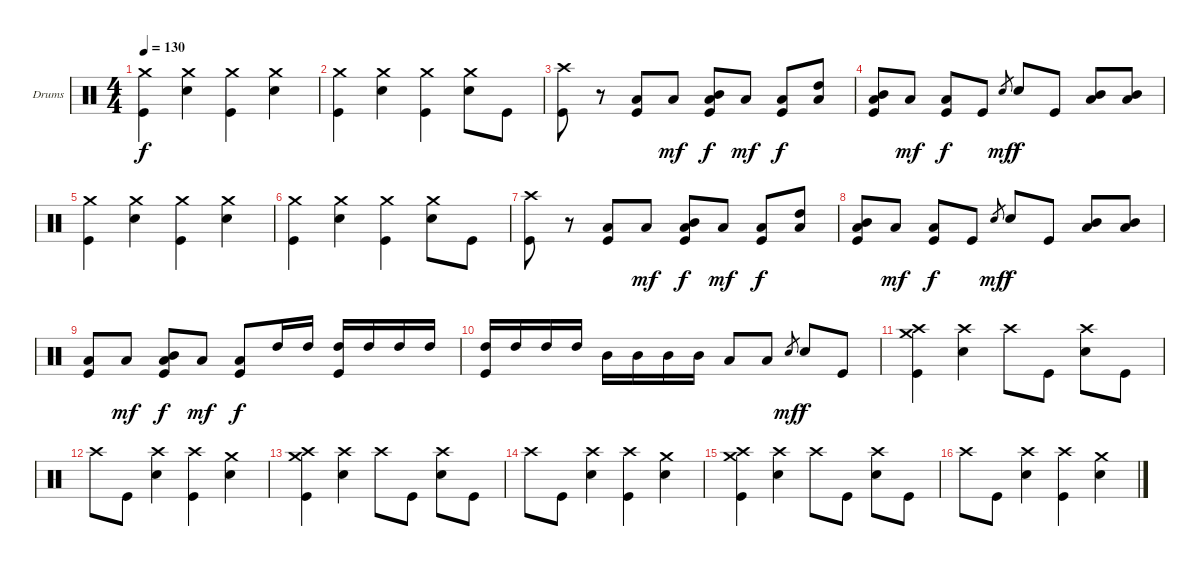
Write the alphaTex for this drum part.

\bracketExtendMode groupsimilarinstruments
\firstSystemTrackNameOrientation horizontal
\otherSystemsTrackNameOrientation horizontal
\track ("Drumkit" "Drums") {instrument percussion}
\staff {score}
\articulation defaults
\ts (4 4)
\tempo 130
\clef neutral
\ks c
("Crash medium (hit)" "Kick (hit)").4{dy f} ("Crash medium (hit)" "Snare (hit) 2").4 ("Crash medium (hit)" "Kick (hit)").4 ("Crash medium (hit)" "Snare (hit) 2").4 |
("Crash medium (hit)" "Kick (hit)").4 ("Crash medium (hit)" "Snare (hit) 2").4 ("Crash medium (hit)" "Kick (hit)").4 ("Crash medium (hit)" "Snare (hit) 2").8 "Kick (hit)".8 |
("Crash high (hit)" "Kick (hit)").8 r.8 ("Low Tom (hit)" "Kick (hit)").8 "Low Tom (hit)".8{dy mf} ("Mid Tom (hit)" "Low Tom (hit)" "Kick (hit)").8{dy f} "Low Tom (hit)".8{dy mf} ("Low Tom (hit)" "Kick (hit)").8{dy f} ("High Tom (hit)" "Low Tom (hit)").8 |
("Mid Tom (hit)" "Low Tom (hit)" "Kick (hit)").8 "Low Tom (hit)".8{dy mf} ("Low Tom (hit)" "Kick (hit)").8{dy f} "Kick (hit)".8 "Snare (hit) 2".8{gr dy mf} "Snare (hit) 2".8{dy f} "Kick (hit)".8 ("Mid Tom (hit)" "Low Tom (hit)").8 ("Mid Tom (hit)" "Low Tom (hit)").8 |
("Crash medium (hit)" "Kick (hit)").4 ("Crash medium (hit)" "Snare (hit) 2").4 ("Crash medium (hit)" "Kick (hit)").4 ("Crash medium (hit)" "Snare (hit) 2").4 |
("Crash medium (hit)" "Kick (hit)").4 ("Crash medium (hit)" "Snare (hit) 2").4 ("Crash medium (hit)" "Kick (hit)").4 ("Crash medium (hit)" "Snare (hit) 2").8 "Kick (hit)".8 |
("Crash high (hit)" "Kick (hit)").8 r.8 ("Low Tom (hit)" "Kick (hit)").8 "Low Tom (hit)".8{dy mf} ("Mid Tom (hit)" "Low Tom (hit)" "Kick (hit)").8{dy f} "Low Tom (hit)".8{dy mf} ("Low Tom (hit)" "Kick (hit)").8{dy f} ("High Tom (hit)" "Low Tom (hit)").8 |
("Mid Tom (hit)" "Low Tom (hit)" "Kick (hit)").8 "Low Tom (hit)".8{dy mf} ("Low Tom (hit)" "Kick (hit)").8{dy f} "Kick (hit)".8 "Snare (hit) 2".8{gr dy mf} "Snare (hit) 2".8{dy f} "Kick (hit)".8 ("Mid Tom (hit)" "Low Tom (hit)").8 ("Mid Tom (hit)" "Low Tom (hit)").8 |
("Low Tom (hit)" "Kick (hit)").8 "Low Tom (hit)".8{dy mf} ("Mid Tom (hit)" "Low Tom (hit)" "Kick (hit)").8{dy f} "Low Tom (hit)".8{dy mf} ("Low Tom (hit)" "Kick (hit)").8{dy f} "High Tom (hit)".16 "High Tom (hit)".16 ("High Tom (hit)" "Kick (hit)").16 "High Tom (hit)".16 "High Tom (hit)".16 "High Tom (hit)".16 |
("High Tom (hit)" "Kick (hit)").16 "High Tom (hit)".16 "High Tom (hit)".16 "High Tom (hit)".16 "Mid Tom (hit)".16 "Mid Tom (hit)".16 "Mid Tom (hit)".16 "Mid Tom (hit)".16 "Low Tom (hit)".8 "Low Tom (hit)".8 "Snare (hit) 2".8{gr dy mf} "Snare (hit) 2".8{dy f} "Kick (hit)".8 |
("Crash high (hit)" "Crash medium (hit)" "Kick (hit)").4 ("Crash high (hit)" "Snare (hit) 2").4 "Crash high (hit)".8 "Kick (hit)".8 ("Crash high (hit)" "Snare (hit) 2").8 "Kick (hit)".8 |
"Crash high (hit)".8 "Kick (hit)".8 ("Crash high (hit)" "Snare (hit) 2").4 ("Crash high (hit)" "Kick (hit)").4 ("Crash medium (hit)" "Snare (hit) 2").4 |
("Crash high (hit)" "Crash medium (hit)" "Kick (hit)").4 ("Crash high (hit)" "Snare (hit) 2").4 "Crash high (hit)".8 "Kick (hit)".8 ("Crash high (hit)" "Snare (hit) 2").8 "Kick (hit)".8 |
"Crash high (hit)".8 "Kick (hit)".8 ("Crash high (hit)" "Snare (hit) 2").4 ("Crash high (hit)" "Kick (hit)").4 ("Crash medium (hit)" "Snare (hit) 2").4 |
("Crash high (hit)" "Crash medium (hit)" "Kick (hit)").4 ("Crash high (hit)" "Snare (hit) 2").4 "Crash high (hit)".8 "Kick (hit)".8 ("Crash high (hit)" "Snare (hit) 2").8 "Kick (hit)".8 |
"Crash high (hit)".8 "Kick (hit)".8 ("Crash high (hit)" "Snare (hit) 2").4 ("Crash high (hit)" "Kick (hit)").4 ("Crash medium (hit)" "Snare (hit) 2").4
